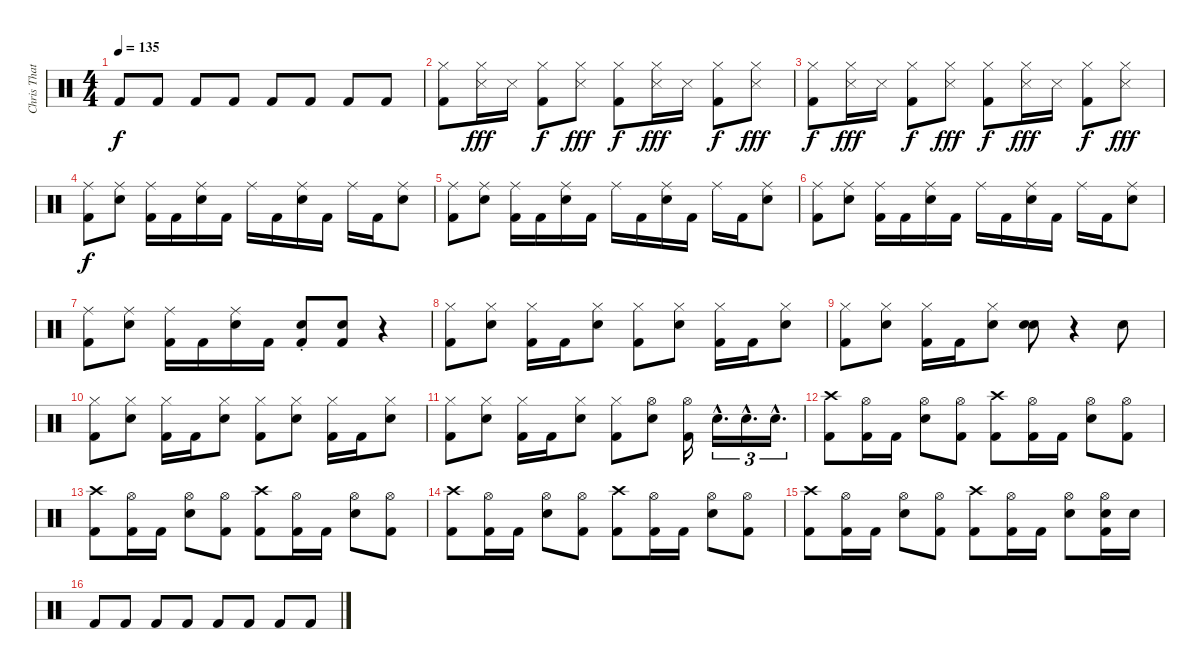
\track ("Chris Thatcher" "Chris That") {instrument percussion}
\staff {score}
\articulation defaults
\ts (4 4)
\tempo 135
\clef neutral
\ks c "Kick (hit) 2".8{dy f} "Kick (hit) 2".8 "Kick (hit) 2".8 "Kick (hit) 2".8 "Kick (hit) 2".8 "Kick (hit) 2".8 "Kick (hit) 2".8 "Kick (hit) 2".8
|
("Hi-Hat (closed)" "Kick (hit) 2").8 ("Hi-Hat (closed)" "Snare (side stick) 3").16{dy fff} "Snare (side stick) 3".16 ("Hi-Hat (closed)" "Kick (hit) 2").8{dy f} ("Hi-Hat (closed)" "Snare (side stick) 3").8{dy fff} ("Hi-Hat (closed)" "Kick (hit) 2").8{dy f} ("Hi-Hat (closed)" "Snare (side stick) 3").16{dy fff} "Snare (side stick) 3".16 ("Hi-Hat (closed)" "Kick (hit) 2").8{dy f} ("Hi-Hat (closed)" "Snare (side stick) 3").8{dy fff} |
("Hi-Hat (closed)" "Kick (hit) 2").8{dy f} ("Hi-Hat (closed)" "Snare (side stick) 3").16{dy fff} "Snare (side stick) 3".16 ("Hi-Hat (closed)" "Kick (hit) 2").8{dy f} ("Hi-Hat (closed)" "Snare (side stick) 3").8{dy fff} ("Hi-Hat (closed)" "Kick (hit) 2").8{dy f} ("Hi-Hat (closed)" "Snare (side stick) 3").16{dy fff} "Snare (side stick) 3".16 ("Hi-Hat (closed)" "Kick (hit) 2").8{dy f} ("Hi-Hat (closed)" "Snare (side stick) 3").8{dy fff} |
("Ride (middle)" "Kick (hit) 2").8{dy f} ("Ride (middle)" "Electric Snare (hit)").8 ("Ride (middle)" "Kick (hit) 2").16 "Kick (hit) 2".16 ("Ride (middle)" "Electric Snare (hit)").16 "Kick (hit) 2".16 "Ride (middle)".16 "Kick (hit) 2".16 ("Ride (middle)" "Electric Snare (hit)").16 "Kick (hit) 2".16 "Ride (middle)".16 "Kick (hit) 2".16 ("Ride (middle)" "Electric Snare (hit)").8 |
("Ride (middle)" "Kick (hit) 2").8 ("Ride (middle)" "Electric Snare (hit)").8 ("Ride (middle)" "Kick (hit) 2").16 "Kick (hit) 2".16 ("Ride (middle)" "Electric Snare (hit)").16 "Kick (hit) 2".16 "Ride (middle)".16 "Kick (hit) 2".16 ("Ride (middle)" "Electric Snare (hit)").16 "Kick (hit) 2".16 "Ride (middle)".16 "Kick (hit) 2".16 ("Ride (middle)" "Electric Snare (hit)").8 |
("Ride (middle)" "Kick (hit) 2").8 ("Ride (middle)" "Electric Snare (hit)").8 ("Ride (middle)" "Kick (hit) 2").16 "Kick (hit) 2".16 ("Ride (middle)" "Electric Snare (hit)").16 "Kick (hit) 2".16 "Ride (middle)".16 "Kick (hit) 2".16 ("Ride (middle)" "Electric Snare (hit)").16 "Kick (hit) 2".16 "Ride (middle)".16 "Kick (hit) 2".16 ("Ride (middle)" "Electric Snare (hit)").8 |
("Ride (middle)" "Kick (hit) 2").8 ("Ride (middle)" "Electric Snare (hit)").8 ("Ride (middle)" "Kick (hit) 2").16 "Kick (hit) 2".16 ("Ride (middle)" "Electric Snare (hit)").16 "Kick (hit) 2".16 ("Electric Snare (hit)"{st} "Kick (hit) 2"{st}).8 ("Electric Snare (hit)" "Kick (hit) 2").8 r.4 |
("Hi-Hat (closed)" "Kick (hit) 2").8 ("Hi-Hat (closed)" "Electric Snare (hit)").8 ("Hi-Hat (closed)" "Kick (hit) 2").16 "Kick (hit) 2".16 ("Hi-Hat (closed)" "Electric Snare (hit)").8 ("Hi-Hat (closed)" "Kick (hit) 2").8 ("Hi-Hat (closed)" "Electric Snare (hit)").8 ("Hi-Hat (closed)" "Kick (hit) 2").16 "Kick (hit) 2".16 ("Hi-Hat (closed)" "Electric Snare (hit)").8 |
("Hi-Hat (closed)" "Kick (hit) 2").8 ("Hi-Hat (closed)" "Electric Snare (hit)").8 ("Hi-Hat (closed)" "Kick (hit) 2").16 "Kick (hit) 2".16 ("Hi-Hat (closed)" "Electric Snare (hit)").8 ("Electric Snare (hit)" "Electric Snare (hit)").8 r.4 "Electric Snare (hit)".8 |
("Hi-Hat (closed)" "Kick (hit) 2").8 ("Hi-Hat (closed)" "Electric Snare (hit)").8 ("Hi-Hat (closed)" "Kick (hit) 2").16 "Kick (hit) 2".16 ("Hi-Hat (closed)" "Electric Snare (hit)").8 ("Hi-Hat (closed)" "Kick (hit) 2").8 ("Hi-Hat (closed)" "Electric Snare (hit)").8 ("Hi-Hat (closed)" "Kick (hit) 2").16 "Kick (hit) 2".16 ("Hi-Hat (closed)" "Electric Snare (hit)").8 |
("Hi-Hat (closed)" "Kick (hit) 2").8 ("Hi-Hat (closed)" "Electric Snare (hit)").8 ("Hi-Hat (closed)" "Kick (hit) 2").16 "Kick (hit) 2".16 ("Hi-Hat (closed)" "Electric Snare (hit)").8 ("Hi-Hat (closed)" "Kick (hit) 2").8 ("Hi-Hat (open)" "Electric Snare (hit)").8 ("Hi-Hat (open)" "Kick (hit) 2").16 "Electric Snare (hit)"{hac}.16{d tu (3 2)} "Electric Snare (hit)"{hac}.16{d tu (3 2)} "Electric Snare (hit)"{hac}.16{d tu (3 2)} |
("Crash high (hit)" "Kick (hit) 2").8 ("Hi-Hat (open)" "Kick (hit) 2").16 "Kick (hit) 2".16 ("Hi-Hat (open)" "Electric Snare (hit)").8 ("Hi-Hat (open)" "Kick (hit) 2").8 ("Crash high (hit)" "Kick (hit) 2").8 ("Hi-Hat (open)" "Kick (hit) 2").16 "Kick (hit) 2".16 ("Hi-Hat (open)" "Electric Snare (hit)").8 ("Hi-Hat (open)" "Kick (hit) 2").8 |
("Crash high (hit)" "Kick (hit) 2").8 ("Hi-Hat (open)" "Kick (hit) 2").16 "Kick (hit) 2".16 ("Hi-Hat (open)" "Electric Snare (hit)").8 ("Hi-Hat (open)" "Kick (hit) 2").8 ("Crash high (hit)" "Kick (hit) 2").8 ("Hi-Hat (open)" "Kick (hit) 2").16 "Kick (hit) 2".16 ("Hi-Hat (open)" "Electric Snare (hit)").8 ("Hi-Hat (open)" "Kick (hit) 2").8 |
("Crash high (hit)" "Kick (hit) 2").8 ("Hi-Hat (open)" "Kick (hit) 2").16 "Kick (hit) 2".16 ("Hi-Hat (open)" "Electric Snare (hit)").8 ("Hi-Hat (open)" "Kick (hit) 2").8 ("Crash high (hit)" "Kick (hit) 2").8 ("Hi-Hat (open)" "Kick (hit) 2").16 "Kick (hit) 2".16 ("Hi-Hat (open)" "Electric Snare (hit)").8 ("Hi-Hat (open)" "Kick (hit) 2").8 |
("Crash high (hit)" "Kick (hit) 2").8 ("Hi-Hat (open)" "Kick (hit) 2").16 "Kick (hit) 2".16 ("Hi-Hat (open)" "Electric Snare (hit)").8 ("Hi-Hat (open)" "Kick (hit) 2").8 ("Crash high (hit)" "Kick (hit) 2").8 ("Hi-Hat (open)" "Kick (hit) 2").16 "Kick (hit) 2".16 ("Hi-Hat (open)" "Electric Snare (hit)").8 ("Hi-Hat (open)" "Electric Snare (hit)" "Kick (hit) 2").16 "Electric Snare (hit)".16 |
"Kick (hit) 2".8 "Kick (hit) 2".8 "Kick (hit) 2".8 "Kick (hit) 2".8 "Kick (hit) 2".8 "Kick (hit) 2".8 "Kick (hit) 2".8 "Kick (hit) 2".8
